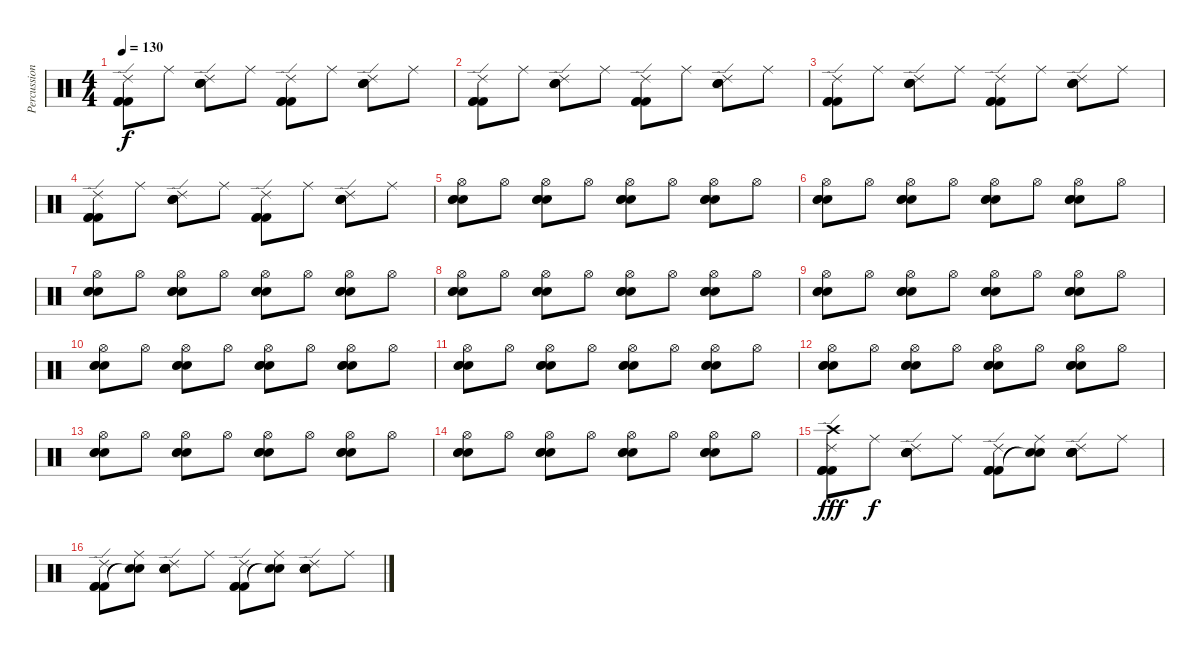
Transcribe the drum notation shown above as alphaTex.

\track ("Percussion" "Percussion") {instrument percussion}
\staff {score}
\articulation defaults
\ts (4 4)
\tempo 130
\clef neutral
\ks c
("Ride (edge) 2" "Kick (hit) 2" "Kick (hit) 2" "Kick (hit) 2").8{dy f} "Ride (middle)".8 ("Ride (edge) 2" "Electric Snare (hit)" "Electric Snare (hit)" "Electric Snare (hit)").8 "Ride (middle)".8 ("Ride (edge) 2" "Kick (hit) 2" "Kick (hit) 2" "Kick (hit) 2").8 "Ride (middle)".8 ("Ride (edge) 2" "Electric Snare (hit)" "Electric Snare (hit)" "Electric Snare (hit)").8 "Ride (middle)".8 |
("Ride (edge) 2" "Kick (hit) 2" "Kick (hit) 2" "Kick (hit) 2").8 "Ride (middle)".8 ("Ride (edge) 2" "Electric Snare (hit)" "Electric Snare (hit)" "Electric Snare (hit)").8 "Ride (middle)".8 ("Ride (edge) 2" "Kick (hit) 2" "Kick (hit) 2" "Kick (hit) 2").8 "Ride (middle)".8 ("Ride (edge) 2" "Electric Snare (hit)" "Electric Snare (hit)" "Electric Snare (hit)").8 "Ride (middle)".8 |
("Ride (edge) 2" "Kick (hit) 2" "Kick (hit) 2" "Kick (hit) 2").8 "Ride (middle)".8 ("Ride (edge) 2" "Electric Snare (hit)" "Electric Snare (hit)" "Electric Snare (hit)").8 "Ride (middle)".8 ("Ride (edge) 2" "Kick (hit) 2" "Kick (hit) 2" "Kick (hit) 2").8 "Ride (middle)".8 ("Ride (edge) 2" "Electric Snare (hit)" "Electric Snare (hit)" "Electric Snare (hit)").8 "Ride (middle)".8 |
("Ride (edge) 2" "Kick (hit) 2" "Kick (hit) 2" "Kick (hit) 2").8 "Ride (middle)".8 ("Ride (edge) 2" "Electric Snare (hit)" "Electric Snare (hit)" "Electric Snare (hit)").8 "Ride (middle)".8 ("Ride (edge) 2" "Kick (hit) 2" "Kick (hit) 2" "Kick (hit) 2").8 "Ride (middle)".8 ("Ride (edge) 2" "Electric Snare (hit)" "Electric Snare (hit)" "Electric Snare (hit)").8 "Ride (middle)".8 |
("Hi-Hat (open)" "Electric Snare (hit)" "Electric Snare (hit)" "Electric Snare (hit)").8 "Hi-Hat (open)".8 ("Hi-Hat (open)" "Electric Snare (hit)" "Electric Snare (hit)" "Electric Snare (hit)").8 "Hi-Hat (open)".8 ("Hi-Hat (open)" "Electric Snare (hit)" "Electric Snare (hit)" "Electric Snare (hit)").8 "Hi-Hat (open)".8 ("Hi-Hat (open)" "Electric Snare (hit)" "Electric Snare (hit)" "Electric Snare (hit)").8 "Hi-Hat (open)".8 |
("Hi-Hat (open)" "Electric Snare (hit)" "Electric Snare (hit)" "Electric Snare (hit)").8 "Hi-Hat (open)".8 ("Hi-Hat (open)" "Electric Snare (hit)" "Electric Snare (hit)" "Electric Snare (hit)").8 "Hi-Hat (open)".8 ("Hi-Hat (open)" "Electric Snare (hit)" "Electric Snare (hit)" "Electric Snare (hit)").8 "Hi-Hat (open)".8 ("Hi-Hat (open)" "Electric Snare (hit)" "Electric Snare (hit)" "Electric Snare (hit)").8 "Hi-Hat (open)".8 |
("Hi-Hat (open)" "Electric Snare (hit)" "Electric Snare (hit)" "Electric Snare (hit)").8 "Hi-Hat (open)".8 ("Hi-Hat (open)" "Electric Snare (hit)" "Electric Snare (hit)" "Electric Snare (hit)").8 "Hi-Hat (open)".8 ("Hi-Hat (open)" "Electric Snare (hit)" "Electric Snare (hit)" "Electric Snare (hit)").8 "Hi-Hat (open)".8 ("Hi-Hat (open)" "Electric Snare (hit)" "Electric Snare (hit)" "Electric Snare (hit)").8 "Hi-Hat (open)".8 |
("Hi-Hat (open)" "Electric Snare (hit)" "Electric Snare (hit)" "Electric Snare (hit)").8 "Hi-Hat (open)".8 ("Hi-Hat (open)" "Electric Snare (hit)" "Electric Snare (hit)" "Electric Snare (hit)").8 "Hi-Hat (open)".8 ("Hi-Hat (open)" "Electric Snare (hit)" "Electric Snare (hit)" "Electric Snare (hit)").8 "Hi-Hat (open)".8 ("Hi-Hat (open)" "Electric Snare (hit)" "Electric Snare (hit)" "Electric Snare (hit)").8 "Hi-Hat (open)".8 |
("Hi-Hat (open)" "Electric Snare (hit)" "Electric Snare (hit)" "Electric Snare (hit)").8 "Hi-Hat (open)".8 ("Hi-Hat (open)" "Electric Snare (hit)" "Electric Snare (hit)" "Electric Snare (hit)").8 "Hi-Hat (open)".8 ("Hi-Hat (open)" "Electric Snare (hit)" "Electric Snare (hit)" "Electric Snare (hit)").8 "Hi-Hat (open)".8 ("Hi-Hat (open)" "Electric Snare (hit)" "Electric Snare (hit)" "Electric Snare (hit)").8 "Hi-Hat (open)".8 |
("Hi-Hat (open)" "Electric Snare (hit)" "Electric Snare (hit)" "Electric Snare (hit)").8 "Hi-Hat (open)".8 ("Hi-Hat (open)" "Electric Snare (hit)" "Electric Snare (hit)" "Electric Snare (hit)").8 "Hi-Hat (open)".8 ("Hi-Hat (open)" "Electric Snare (hit)" "Electric Snare (hit)" "Electric Snare (hit)").8 "Hi-Hat (open)".8 ("Hi-Hat (open)" "Electric Snare (hit)" "Electric Snare (hit)" "Electric Snare (hit)").8 "Hi-Hat (open)".8 |
("Hi-Hat (open)" "Electric Snare (hit)" "Electric Snare (hit)" "Electric Snare (hit)").8 "Hi-Hat (open)".8 ("Hi-Hat (open)" "Electric Snare (hit)" "Electric Snare (hit)" "Electric Snare (hit)").8 "Hi-Hat (open)".8 ("Hi-Hat (open)" "Electric Snare (hit)" "Electric Snare (hit)" "Electric Snare (hit)").8 "Hi-Hat (open)".8 ("Hi-Hat (open)" "Electric Snare (hit)" "Electric Snare (hit)" "Electric Snare (hit)").8 "Hi-Hat (open)".8 |
("Hi-Hat (open)" "Electric Snare (hit)" "Electric Snare (hit)" "Electric Snare (hit)").8 "Hi-Hat (open)".8 ("Hi-Hat (open)" "Electric Snare (hit)" "Electric Snare (hit)" "Electric Snare (hit)").8 "Hi-Hat (open)".8 ("Hi-Hat (open)" "Electric Snare (hit)" "Electric Snare (hit)" "Electric Snare (hit)").8 "Hi-Hat (open)".8 ("Hi-Hat (open)" "Electric Snare (hit)" "Electric Snare (hit)" "Electric Snare (hit)").8 "Hi-Hat (open)".8 |
("Hi-Hat (open)" "Electric Snare (hit)" "Electric Snare (hit)" "Electric Snare (hit)").8 "Hi-Hat (open)".8 ("Hi-Hat (open)" "Electric Snare (hit)" "Electric Snare (hit)" "Electric Snare (hit)").8 "Hi-Hat (open)".8 ("Hi-Hat (open)" "Electric Snare (hit)" "Electric Snare (hit)" "Electric Snare (hit)").8 "Hi-Hat (open)".8 ("Hi-Hat (open)" "Electric Snare (hit)" "Electric Snare (hit)" "Electric Snare (hit)").8 "Hi-Hat (open)".8 |
("Hi-Hat (open)" "Electric Snare (hit)" "Electric Snare (hit)" "Electric Snare (hit)").8 "Hi-Hat (open)".8 ("Hi-Hat (open)" "Electric Snare (hit)" "Electric Snare (hit)" "Electric Snare (hit)").8 "Hi-Hat (open)".8 ("Hi-Hat (open)" "Electric Snare (hit)" "Electric Snare (hit)" "Electric Snare (hit)").8 "Hi-Hat (open)".8 ("Hi-Hat (open)" "Electric Snare (hit)" "Electric Snare (hit)" "Electric Snare (hit)").8 "Hi-Hat (open)".8 |
("Ride (edge) 2" "Kick (hit) 2" "Kick (hit) 2" "Kick (hit) 2" "Crash high (hit)").8{dy fff} "Ride (middle)".8{dy f} ("Ride (edge) 2" "Electric Snare (hit)" "Electric Snare (hit)" "Electric Snare (hit)" "Hand Clap (hit)" "Hand Clap (hit)").8 "Ride (middle)".8 ("Ride (edge) 2" "Kick (hit) 2" "Kick (hit) 2" "Kick (hit) 2").8 ("Ride (middle)" "Snare (hit)"{t} "Snare (hit)"{t}).8 ("Ride (edge) 2" "Electric Snare (hit)" "Electric Snare (hit)" "Electric Snare (hit)" "Hand Clap (hit)" "Hand Clap (hit)").8 "Ride (middle)".8 |
("Ride (edge) 2" "Kick (hit) 2" "Kick (hit) 2" "Kick (hit) 2").8 ("Ride (middle)" "Snare (hit)"{t} "Snare (hit)"{t}).8 ("Ride (edge) 2" "Electric Snare (hit)" "Electric Snare (hit)" "Electric Snare (hit)" "Hand Clap (hit)" "Hand Clap (hit)").8 "Ride (middle)".8 ("Ride (edge) 2" "Kick (hit) 2" "Kick (hit) 2" "Kick (hit) 2").8 ("Ride (middle)" "Snare (hit)"{t} "Snare (hit)"{t}).8 ("Ride (edge) 2" "Electric Snare (hit)" "Electric Snare (hit)" "Electric Snare (hit)" "Hand Clap (hit)" "Hand Clap (hit)").8 "Ride (middle)".8
